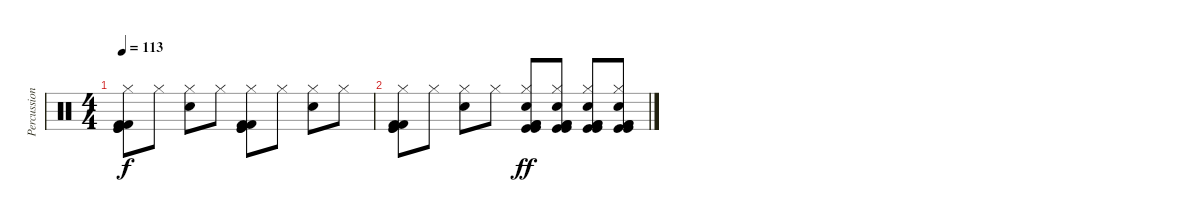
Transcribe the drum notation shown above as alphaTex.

\track ("Percussions" "Percussion") {instrument percussion}
\staff {score}
\articulation defaults
\ts (4 4)
\tempo 113
\clef neutral
\ks c
("Kick (hit)" "Hi-Hat (closed)" "Kick (hit) 2" "Kick (hit)" "Kick (hit) 2").8{dy f} "Hi-Hat (closed)".8 ("Hi-Hat (closed)" "Electric Snare (hit)").8 "Hi-Hat (closed)".8 ("Kick (hit)" "Hi-Hat (closed)" "Kick (hit) 2" "Kick (hit)" "Kick (hit) 2").8 "Hi-Hat (closed)".8 ("Hi-Hat (closed)" "Electric Snare (hit)").8 "Hi-Hat (closed)".8 |
("Kick (hit)" "Hi-Hat (closed)" "Kick (hit) 2" "Kick (hit)" "Kick (hit) 2").8 "Hi-Hat (closed)".8 ("Hi-Hat (closed)" "Electric Snare (hit)").8 "Hi-Hat (closed)".8 ("Kick (hit)" "Hi-Hat (closed)" "Electric Snare (hit)" "Kick (hit) 2" "Kick (hit)" "Kick (hit) 2").8{dy ff} ("Kick (hit)" "Hi-Hat (closed)" "Electric Snare (hit)" "Kick (hit) 2" "Kick (hit)" "Kick (hit) 2").8 ("Kick (hit)" "Hi-Hat (closed)" "Electric Snare (hit)" "Kick (hit) 2" "Kick (hit)" "Kick (hit) 2").8 ("Kick (hit)" "Hi-Hat (closed)" "Electric Snare (hit)" "Kick (hit) 2" "Kick (hit)" "Kick (hit) 2").8
